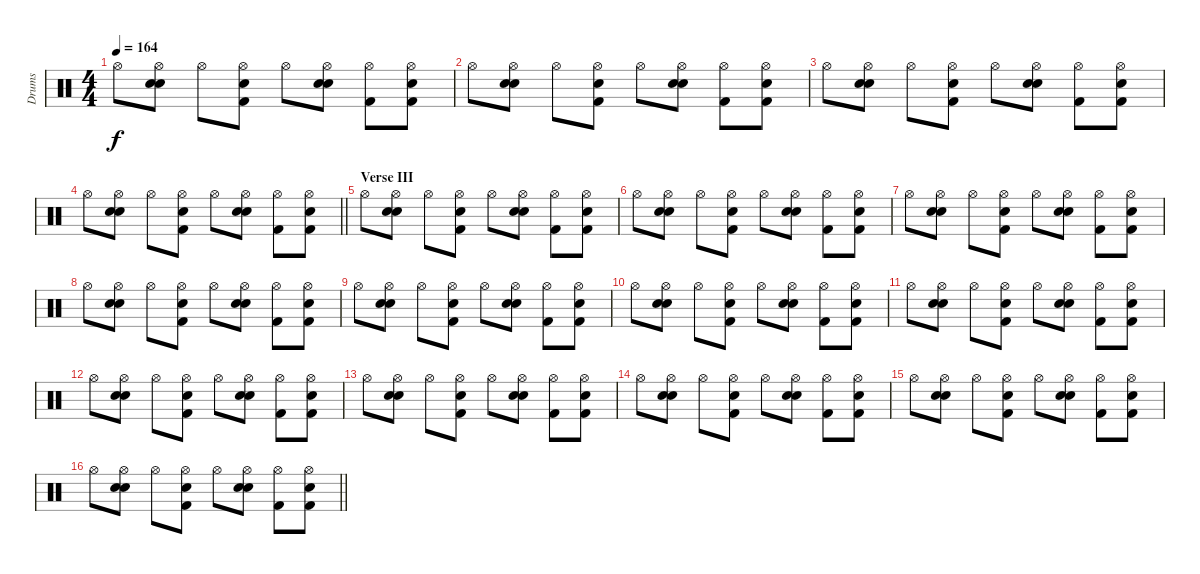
\track ("Drums" "Drums") {instrument percussion}
\staff {score}
\articulation defaults
\ts (4 4)
\tempo 164
\clef neutral
\ks c "Hi-Hat (open)".8{dy f}
("Snare (hit) 2" "Hi-Hat (open)" "Hand Clap (hit)").8 "Hi-Hat (open)".8 ("Kick (hit) 2" "Hi-Hat (open)" "Hand Clap (hit)").8 "Hi-Hat (open)".8 ("Snare (hit) 2" "Hi-Hat (open)" "Hand Clap (hit)").8 ("Kick (hit) 2" "Hi-Hat (open)").8 ("Kick (hit) 2" "Hi-Hat (open)" "Hand Clap (hit)").8 |
"Hi-Hat (open)".8 ("Snare (hit) 2" "Hi-Hat (open)" "Hand Clap (hit)").8 "Hi-Hat (open)".8 ("Kick (hit) 2" "Hi-Hat (open)" "Hand Clap (hit)").8 "Hi-Hat (open)".8 ("Snare (hit) 2" "Hi-Hat (open)" "Hand Clap (hit)").8 ("Kick (hit) 2" "Hi-Hat (open)").8 ("Kick (hit) 2" "Hi-Hat (open)" "Hand Clap (hit)").8 |
"Hi-Hat (open)".8 ("Snare (hit) 2" "Hi-Hat (open)" "Hand Clap (hit)").8 "Hi-Hat (open)".8 ("Kick (hit) 2" "Hi-Hat (open)" "Hand Clap (hit)").8 "Hi-Hat (open)".8 ("Snare (hit) 2" "Hi-Hat (open)" "Hand Clap (hit)").8 ("Kick (hit) 2" "Hi-Hat (open)").8 ("Kick (hit) 2" "Hi-Hat (open)" "Hand Clap (hit)").8 |
\barLineRight lightlight "Hi-Hat (open)".8
("Snare (hit) 2" "Hi-Hat (open)" "Hand Clap (hit)").8 "Hi-Hat (open)".8 ("Kick (hit) 2" "Hi-Hat (open)" "Hand Clap (hit)").8 "Hi-Hat (open)".8 ("Snare (hit) 2" "Hi-Hat (open)" "Hand Clap (hit)").8 ("Kick (hit) 2" "Hi-Hat (open)").8 ("Kick (hit) 2" "Hi-Hat (open)" "Hand Clap (hit)").8 |
\section ("" "Verse III")
"Hi-Hat (open)".8 ("Snare (hit) 2" "Hi-Hat (open)" "Hand Clap (hit)").8 "Hi-Hat (open)".8 ("Kick (hit) 2" "Hi-Hat (open)" "Hand Clap (hit)").8 "Hi-Hat (open)".8 ("Snare (hit) 2" "Hi-Hat (open)" "Hand Clap (hit)").8 ("Kick (hit) 2" "Hi-Hat (open)").8 ("Kick (hit) 2" "Hi-Hat (open)" "Hand Clap (hit)").8 |
"Hi-Hat (open)".8 ("Snare (hit) 2" "Hi-Hat (open)" "Hand Clap (hit)").8 "Hi-Hat (open)".8 ("Kick (hit) 2" "Hi-Hat (open)" "Hand Clap (hit)").8 "Hi-Hat (open)".8 ("Snare (hit) 2" "Hi-Hat (open)" "Hand Clap (hit)").8 ("Kick (hit) 2" "Hi-Hat (open)").8 ("Kick (hit) 2" "Hi-Hat (open)" "Hand Clap (hit)").8 |
"Hi-Hat (open)".8 ("Snare (hit) 2" "Hi-Hat (open)" "Hand Clap (hit)").8 "Hi-Hat (open)".8 ("Kick (hit) 2" "Hi-Hat (open)" "Hand Clap (hit)").8 "Hi-Hat (open)".8 ("Snare (hit) 2" "Hi-Hat (open)" "Hand Clap (hit)").8 ("Kick (hit) 2" "Hi-Hat (open)").8 ("Kick (hit) 2" "Hi-Hat (open)" "Hand Clap (hit)").8 |
"Hi-Hat (open)".8 ("Snare (hit) 2" "Hi-Hat (open)" "Hand Clap (hit)").8 "Hi-Hat (open)".8 ("Kick (hit) 2" "Hi-Hat (open)" "Hand Clap (hit)").8 "Hi-Hat (open)".8 ("Snare (hit) 2" "Hi-Hat (open)" "Hand Clap (hit)").8 ("Kick (hit) 2" "Hi-Hat (open)").8 ("Kick (hit) 2" "Hi-Hat (open)" "Hand Clap (hit)").8 |
"Hi-Hat (open)".8 ("Snare (hit) 2" "Hi-Hat (open)" "Hand Clap (hit)").8 "Hi-Hat (open)".8 ("Kick (hit) 2" "Hi-Hat (open)" "Hand Clap (hit)").8 "Hi-Hat (open)".8 ("Snare (hit) 2" "Hi-Hat (open)" "Hand Clap (hit)").8 ("Kick (hit) 2" "Hi-Hat (open)").8 ("Kick (hit) 2" "Hi-Hat (open)" "Hand Clap (hit)").8 |
"Hi-Hat (open)".8 ("Snare (hit) 2" "Hi-Hat (open)" "Hand Clap (hit)").8 "Hi-Hat (open)".8 ("Kick (hit) 2" "Hi-Hat (open)" "Hand Clap (hit)").8 "Hi-Hat (open)".8 ("Snare (hit) 2" "Hi-Hat (open)" "Hand Clap (hit)").8 ("Kick (hit) 2" "Hi-Hat (open)").8 ("Kick (hit) 2" "Hi-Hat (open)" "Hand Clap (hit)").8 |
"Hi-Hat (open)".8 ("Snare (hit) 2" "Hi-Hat (open)" "Hand Clap (hit)").8 "Hi-Hat (open)".8 ("Kick (hit) 2" "Hi-Hat (open)" "Hand Clap (hit)").8 "Hi-Hat (open)".8 ("Snare (hit) 2" "Hi-Hat (open)" "Hand Clap (hit)").8 ("Kick (hit) 2" "Hi-Hat (open)").8 ("Kick (hit) 2" "Hi-Hat (open)" "Hand Clap (hit)").8 |
"Hi-Hat (open)".8 ("Snare (hit) 2" "Hi-Hat (open)" "Hand Clap (hit)").8 "Hi-Hat (open)".8 ("Kick (hit) 2" "Hi-Hat (open)" "Hand Clap (hit)").8 "Hi-Hat (open)".8 ("Snare (hit) 2" "Hi-Hat (open)" "Hand Clap (hit)").8 ("Kick (hit) 2" "Hi-Hat (open)").8 ("Kick (hit) 2" "Hi-Hat (open)" "Hand Clap (hit)").8 |
"Hi-Hat (open)".8 ("Snare (hit) 2" "Hi-Hat (open)" "Hand Clap (hit)").8 "Hi-Hat (open)".8 ("Kick (hit) 2" "Hi-Hat (open)" "Hand Clap (hit)").8 "Hi-Hat (open)".8 ("Snare (hit) 2" "Hi-Hat (open)" "Hand Clap (hit)").8 ("Kick (hit) 2" "Hi-Hat (open)").8 ("Kick (hit) 2" "Hi-Hat (open)" "Hand Clap (hit)").8 |
"Hi-Hat (open)".8 ("Snare (hit) 2" "Hi-Hat (open)" "Hand Clap (hit)").8 "Hi-Hat (open)".8 ("Kick (hit) 2" "Hi-Hat (open)" "Hand Clap (hit)").8 "Hi-Hat (open)".8 ("Snare (hit) 2" "Hi-Hat (open)" "Hand Clap (hit)").8 ("Kick (hit) 2" "Hi-Hat (open)").8 ("Kick (hit) 2" "Hi-Hat (open)" "Hand Clap (hit)").8 |
"Hi-Hat (open)".8 ("Snare (hit) 2" "Hi-Hat (open)" "Hand Clap (hit)").8 "Hi-Hat (open)".8 ("Kick (hit) 2" "Hi-Hat (open)" "Hand Clap (hit)").8 "Hi-Hat (open)".8 ("Snare (hit) 2" "Hi-Hat (open)" "Hand Clap (hit)").8 ("Kick (hit) 2" "Hi-Hat (open)").8 ("Kick (hit) 2" "Hi-Hat (open)" "Hand Clap (hit)").8 |
\barLineRight lightlight "Hi-Hat (open)".8
("Snare (hit) 2" "Hi-Hat (open)" "Hand Clap (hit)").8 "Hi-Hat (open)".8 ("Kick (hit) 2" "Hi-Hat (open)" "Hand Clap (hit)").8 "Hi-Hat (open)".8 ("Snare (hit) 2" "Hi-Hat (open)" "Hand Clap (hit)").8 ("Kick (hit) 2" "Hi-Hat (open)").8 ("Kick (hit) 2" "Hi-Hat (open)" "Hand Clap (hit)").8
